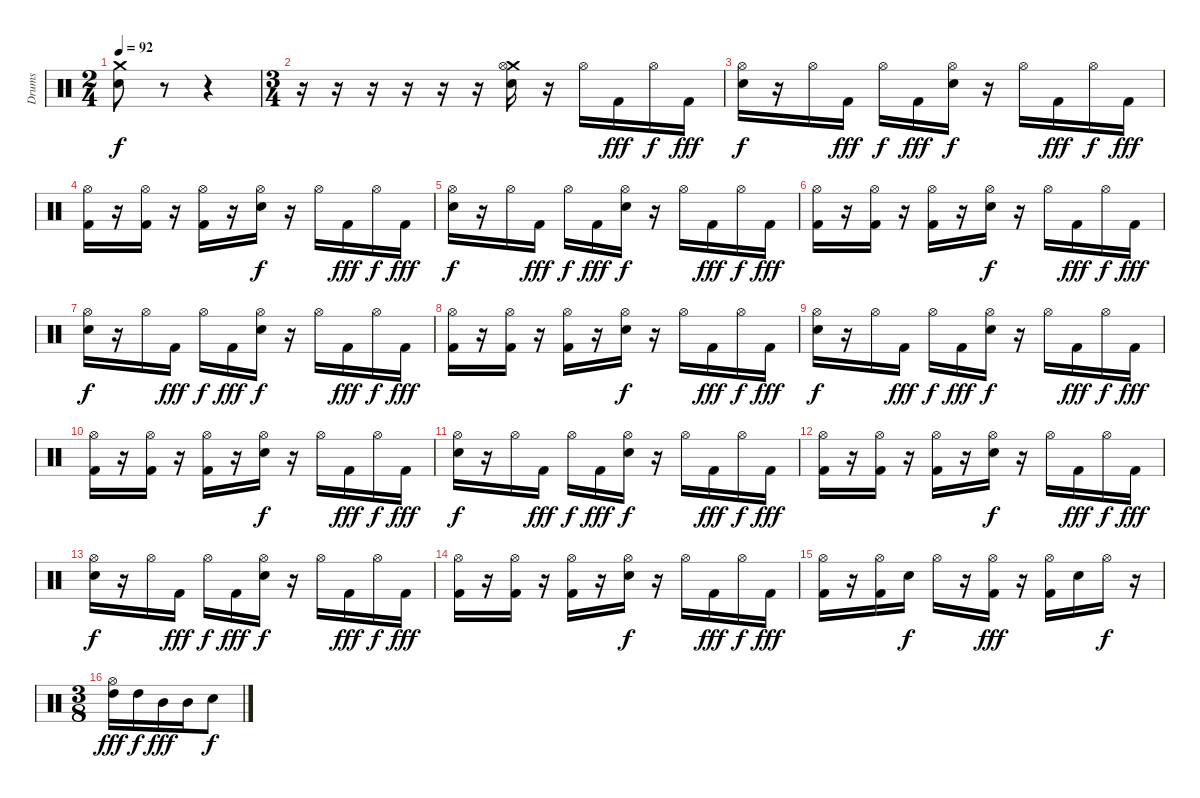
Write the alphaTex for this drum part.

\track ("Drums" "Drums") {instrument percussion}
\staff {score}
\articulation defaults
\ts (2 4)
\tempo 92
\clef neutral
\ks c
("Crash medium (hit)" "Snare (hit) 2").8{dy f} r.8 r.4 |
\ts (3 4)
r.16 r.16 r.16 r.16 r.16 r.16 ("Crash medium (hit)" "Hi-Hat (open)" "Snare (hit) 2").16 r.16 "Hi-Hat (open)".16 "Kick (hit) 2".16{dy fff} "Hi-Hat (open)".16{dy f} "Kick (hit) 2".16{dy fff} |
("Hi-Hat (open)" "Snare (hit) 2").16{dy f} r.16 "Hi-Hat (open)".16 "Kick (hit) 2".16{dy fff} "Hi-Hat (open)".16{dy f} "Kick (hit) 2".16{dy fff} ("Hi-Hat (open)" "Snare (hit) 2").16{dy f} r.16 "Hi-Hat (open)".16 "Kick (hit) 2".16{dy fff} "Hi-Hat (open)".16{dy f} "Kick (hit) 2".16{dy fff} |
("Hi-Hat (open)" "Kick (hit) 2").16 r.16 ("Hi-Hat (open)" "Kick (hit) 2").16 r.16 ("Hi-Hat (open)" "Kick (hit) 2").16 r.16 ("Hi-Hat (open)" "Snare (hit) 2").16{dy f} r.16 "Hi-Hat (open)".16 "Kick (hit) 2".16{dy fff} "Hi-Hat (open)".16{dy f} "Kick (hit) 2".16{dy fff} |
("Hi-Hat (open)" "Snare (hit) 2").16{dy f} r.16 "Hi-Hat (open)".16 "Kick (hit) 2".16{dy fff} "Hi-Hat (open)".16{dy f} "Kick (hit) 2".16{dy fff} ("Hi-Hat (open)" "Snare (hit) 2").16{dy f} r.16 "Hi-Hat (open)".16 "Kick (hit) 2".16{dy fff} "Hi-Hat (open)".16{dy f} "Kick (hit) 2".16{dy fff} |
("Hi-Hat (open)" "Kick (hit) 2").16 r.16 ("Hi-Hat (open)" "Kick (hit) 2").16 r.16 ("Hi-Hat (open)" "Kick (hit) 2").16 r.16 ("Hi-Hat (open)" "Snare (hit) 2").16{dy f} r.16 "Hi-Hat (open)".16 "Kick (hit) 2".16{dy fff} "Hi-Hat (open)".16{dy f} "Kick (hit) 2".16{dy fff} |
("Hi-Hat (open)" "Snare (hit) 2").16{dy f} r.16 "Hi-Hat (open)".16 "Kick (hit) 2".16{dy fff} "Hi-Hat (open)".16{dy f} "Kick (hit) 2".16{dy fff} ("Hi-Hat (open)" "Snare (hit) 2").16{dy f} r.16 "Hi-Hat (open)".16 "Kick (hit) 2".16{dy fff} "Hi-Hat (open)".16{dy f} "Kick (hit) 2".16{dy fff} |
("Hi-Hat (open)" "Kick (hit) 2").16 r.16 ("Hi-Hat (open)" "Kick (hit) 2").16 r.16 ("Hi-Hat (open)" "Kick (hit) 2").16 r.16 ("Hi-Hat (open)" "Snare (hit) 2").16{dy f} r.16 "Hi-Hat (open)".16 "Kick (hit) 2".16{dy fff} "Hi-Hat (open)".16{dy f} "Kick (hit) 2".16{dy fff} |
("Hi-Hat (open)" "Snare (hit) 2").16{dy f} r.16 "Hi-Hat (open)".16 "Kick (hit) 2".16{dy fff} "Hi-Hat (open)".16{dy f} "Kick (hit) 2".16{dy fff} ("Hi-Hat (open)" "Snare (hit) 2").16{dy f} r.16 "Hi-Hat (open)".16 "Kick (hit) 2".16{dy fff} "Hi-Hat (open)".16{dy f} "Kick (hit) 2".16{dy fff} |
("Hi-Hat (open)" "Kick (hit) 2").16 r.16 ("Hi-Hat (open)" "Kick (hit) 2").16 r.16 ("Hi-Hat (open)" "Kick (hit) 2").16 r.16 ("Hi-Hat (open)" "Snare (hit) 2").16{dy f} r.16 "Hi-Hat (open)".16 "Kick (hit) 2".16{dy fff} "Hi-Hat (open)".16{dy f} "Kick (hit) 2".16{dy fff} |
("Hi-Hat (open)" "Snare (hit) 2").16{dy f} r.16 "Hi-Hat (open)".16 "Kick (hit) 2".16{dy fff} "Hi-Hat (open)".16{dy f} "Kick (hit) 2".16{dy fff} ("Hi-Hat (open)" "Snare (hit) 2").16{dy f} r.16 "Hi-Hat (open)".16 "Kick (hit) 2".16{dy fff} "Hi-Hat (open)".16{dy f} "Kick (hit) 2".16{dy fff} |
("Hi-Hat (open)" "Kick (hit) 2").16 r.16 ("Hi-Hat (open)" "Kick (hit) 2").16 r.16 ("Hi-Hat (open)" "Kick (hit) 2").16 r.16 ("Hi-Hat (open)" "Snare (hit) 2").16{dy f} r.16 "Hi-Hat (open)".16 "Kick (hit) 2".16{dy fff} "Hi-Hat (open)".16{dy f} "Kick (hit) 2".16{dy fff} |
("Hi-Hat (open)" "Snare (hit) 2").16{dy f} r.16 "Hi-Hat (open)".16 "Kick (hit) 2".16{dy fff} "Hi-Hat (open)".16{dy f} "Kick (hit) 2".16{dy fff} ("Hi-Hat (open)" "Snare (hit) 2").16{dy f} r.16 "Hi-Hat (open)".16 "Kick (hit) 2".16{dy fff} "Hi-Hat (open)".16{dy f} "Kick (hit) 2".16{dy fff} |
("Hi-Hat (open)" "Kick (hit) 2").16 r.16 ("Hi-Hat (open)" "Kick (hit) 2").16 r.16 ("Hi-Hat (open)" "Kick (hit) 2").16 r.16 ("Hi-Hat (open)" "Snare (hit) 2").16{dy f} r.16 "Hi-Hat (open)".16 "Kick (hit) 2".16{dy fff} "Hi-Hat (open)".16{dy f} "Kick (hit) 2".16{dy fff} |
("Hi-Hat (open)" "Kick (hit) 2").16 r.16 ("Hi-Hat (open)" "Kick (hit) 2").16 "Snare (hit) 2".16{dy f} "Hi-Hat (open)".16 r.16 ("Hi-Hat (open)" "Kick (hit) 2").16{dy fff} r.16 ("Hi-Hat (open)" "Kick (hit) 2").16 "Snare (hit) 2".16 "Hi-Hat (open)".16{dy f} r.16 |
\ts (3 8)
("Hi-Hat (open)" "High Tom (hit)").16{dy fff} "High Tom (hit)".16{dy f} "Mid Tom (hit)".16{dy fff} "Mid Tom (hit)".16 "Snare (hit) 2".8{dy f}
